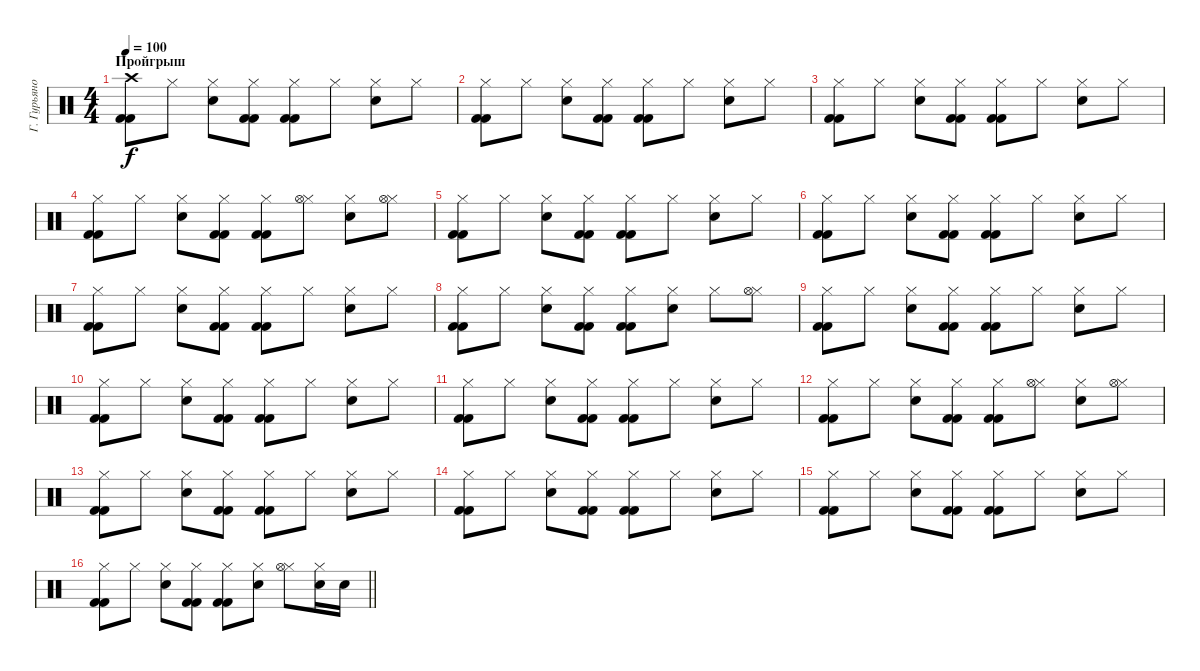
\track ("Г. Гурьянов" "Г. Гурьяно") {instrument percussion}
\staff {score}
\articulation defaults
\ts (4 4)
\section ("" "Пройгрыш")
\tempo 100
\clef neutral
\ks c
("Crash high (hit)" "Kick (hit) 2" "Kick (hit) 2").8{dy f} "Hi-Hat (closed)".8 ("Hi-Hat (closed)" "Snare (hit) 2").8 ("Hi-Hat (closed)" "Kick (hit) 2" "Kick (hit) 2").8 ("Hi-Hat (closed)" "Kick (hit) 2" "Kick (hit) 2").8 "Hi-Hat (closed)".8 ("Hi-Hat (closed)" "Snare (hit) 2").8 "Hi-Hat (closed)".8 |
("Hi-Hat (closed)" "Kick (hit) 2" "Kick (hit) 2").8 "Hi-Hat (closed)".8 ("Hi-Hat (closed)" "Snare (hit) 2").8 ("Hi-Hat (closed)" "Kick (hit) 2" "Kick (hit) 2").8 ("Hi-Hat (closed)" "Kick (hit) 2" "Kick (hit) 2").8 "Hi-Hat (closed)".8 ("Hi-Hat (closed)" "Snare (hit) 2").8 "Hi-Hat (closed)".8 |
("Hi-Hat (closed)" "Kick (hit) 2" "Kick (hit) 2").8 "Hi-Hat (closed)".8 ("Hi-Hat (closed)" "Snare (hit) 2").8 ("Hi-Hat (closed)" "Kick (hit) 2" "Kick (hit) 2").8 ("Hi-Hat (closed)" "Kick (hit) 2" "Kick (hit) 2").8 "Hi-Hat (closed)".8 ("Hi-Hat (closed)" "Snare (hit) 2").8 "Hi-Hat (closed)".8 |
("Hi-Hat (closed)" "Kick (hit) 2" "Kick (hit) 2").8 "Hi-Hat (closed)".8 ("Hi-Hat (closed)" "Snare (hit) 2").8 ("Hi-Hat (closed)" "Kick (hit) 2" "Kick (hit) 2").8 ("Hi-Hat (closed)" "Kick (hit) 2" "Kick (hit) 2").8 ("Hi-Hat (closed)" "Hi-Hat (open)").8 ("Hi-Hat (closed)" "Snare (hit) 2").8 ("Hi-Hat (closed)" "Hi-Hat (open)").8 |
("Hi-Hat (closed)" "Kick (hit) 2" "Kick (hit) 2").8 "Hi-Hat (closed)".8 ("Hi-Hat (closed)" "Snare (hit) 2").8 ("Hi-Hat (closed)" "Kick (hit) 2" "Kick (hit) 2").8 ("Hi-Hat (closed)" "Kick (hit) 2" "Kick (hit) 2").8 "Hi-Hat (closed)".8 ("Hi-Hat (closed)" "Snare (hit) 2").8 "Hi-Hat (closed)".8 |
("Hi-Hat (closed)" "Kick (hit) 2" "Kick (hit) 2").8 "Hi-Hat (closed)".8 ("Hi-Hat (closed)" "Snare (hit) 2").8 ("Hi-Hat (closed)" "Kick (hit) 2" "Kick (hit) 2").8 ("Hi-Hat (closed)" "Kick (hit) 2" "Kick (hit) 2").8 "Hi-Hat (closed)".8 ("Hi-Hat (closed)" "Snare (hit) 2").8 "Hi-Hat (closed)".8 |
("Hi-Hat (closed)" "Kick (hit) 2" "Kick (hit) 2").8 "Hi-Hat (closed)".8 ("Hi-Hat (closed)" "Snare (hit) 2").8 ("Hi-Hat (closed)" "Kick (hit) 2" "Kick (hit) 2").8 ("Hi-Hat (closed)" "Kick (hit) 2" "Kick (hit) 2").8 "Hi-Hat (closed)".8 ("Hi-Hat (closed)" "Snare (hit) 2").8 "Hi-Hat (closed)".8 |
("Hi-Hat (closed)" "Kick (hit) 2" "Kick (hit) 2").8 "Hi-Hat (closed)".8 ("Hi-Hat (closed)" "Snare (hit) 2").8 ("Hi-Hat (closed)" "Kick (hit) 2" "Kick (hit) 2").8 ("Hi-Hat (closed)" "Kick (hit) 2" "Kick (hit) 2").8 ("Hi-Hat (closed)" "Snare (hit) 2").8 "Hi-Hat (closed)".8 ("Hi-Hat (closed)" "Hi-Hat (open)").8 |
("Hi-Hat (closed)" "Kick (hit) 2" "Kick (hit) 2").8 "Hi-Hat (closed)".8 ("Hi-Hat (closed)" "Snare (hit) 2").8 ("Hi-Hat (closed)" "Kick (hit) 2" "Kick (hit) 2").8 ("Hi-Hat (closed)" "Kick (hit) 2" "Kick (hit) 2").8 "Hi-Hat (closed)".8 ("Hi-Hat (closed)" "Snare (hit) 2").8 "Hi-Hat (closed)".8 |
("Hi-Hat (closed)" "Kick (hit) 2" "Kick (hit) 2").8 "Hi-Hat (closed)".8 ("Hi-Hat (closed)" "Snare (hit) 2").8 ("Hi-Hat (closed)" "Kick (hit) 2" "Kick (hit) 2").8 ("Hi-Hat (closed)" "Kick (hit) 2" "Kick (hit) 2").8 "Hi-Hat (closed)".8 ("Hi-Hat (closed)" "Snare (hit) 2").8 "Hi-Hat (closed)".8 |
("Hi-Hat (closed)" "Kick (hit) 2" "Kick (hit) 2").8 "Hi-Hat (closed)".8 ("Hi-Hat (closed)" "Snare (hit) 2").8 ("Hi-Hat (closed)" "Kick (hit) 2" "Kick (hit) 2").8 ("Hi-Hat (closed)" "Kick (hit) 2" "Kick (hit) 2").8 "Hi-Hat (closed)".8 ("Hi-Hat (closed)" "Snare (hit) 2").8 "Hi-Hat (closed)".8 |
("Hi-Hat (closed)" "Kick (hit) 2" "Kick (hit) 2").8 "Hi-Hat (closed)".8 ("Hi-Hat (closed)" "Snare (hit) 2").8 ("Hi-Hat (closed)" "Kick (hit) 2" "Kick (hit) 2").8 ("Hi-Hat (closed)" "Kick (hit) 2" "Kick (hit) 2").8 ("Hi-Hat (closed)" "Hi-Hat (open)").8 ("Hi-Hat (closed)" "Snare (hit) 2").8 ("Hi-Hat (closed)" "Hi-Hat (open)").8 |
("Hi-Hat (closed)" "Kick (hit) 2" "Kick (hit) 2").8 "Hi-Hat (closed)".8 ("Hi-Hat (closed)" "Snare (hit) 2").8 ("Hi-Hat (closed)" "Kick (hit) 2" "Kick (hit) 2").8 ("Hi-Hat (closed)" "Kick (hit) 2" "Kick (hit) 2").8 "Hi-Hat (closed)".8 ("Hi-Hat (closed)" "Snare (hit) 2").8 "Hi-Hat (closed)".8 |
("Hi-Hat (closed)" "Kick (hit) 2" "Kick (hit) 2").8 "Hi-Hat (closed)".8 ("Hi-Hat (closed)" "Snare (hit) 2").8 ("Hi-Hat (closed)" "Kick (hit) 2" "Kick (hit) 2").8 ("Hi-Hat (closed)" "Kick (hit) 2" "Kick (hit) 2").8 "Hi-Hat (closed)".8 ("Hi-Hat (closed)" "Snare (hit) 2").8 "Hi-Hat (closed)".8 |
("Hi-Hat (closed)" "Kick (hit) 2" "Kick (hit) 2").8 "Hi-Hat (closed)".8 ("Hi-Hat (closed)" "Snare (hit) 2").8 ("Hi-Hat (closed)" "Kick (hit) 2" "Kick (hit) 2").8 ("Hi-Hat (closed)" "Kick (hit) 2" "Kick (hit) 2").8 "Hi-Hat (closed)".8 ("Hi-Hat (closed)" "Snare (hit) 2").8 "Hi-Hat (closed)".8 |
\barLineRight lightlight
("Hi-Hat (closed)" "Kick (hit) 2" "Kick (hit) 2").8 "Hi-Hat (closed)".8 ("Hi-Hat (closed)" "Snare (hit) 2").8 ("Hi-Hat (closed)" "Kick (hit) 2" "Kick (hit) 2").8 ("Hi-Hat (closed)" "Kick (hit) 2" "Kick (hit) 2").8 ("Hi-Hat (closed)" "Snare (hit) 2").8 ("Hi-Hat (closed)" "Hi-Hat (open)").8 ("Hi-Hat (closed)" "Snare (hit) 2").16 "Snare (hit) 2".16
